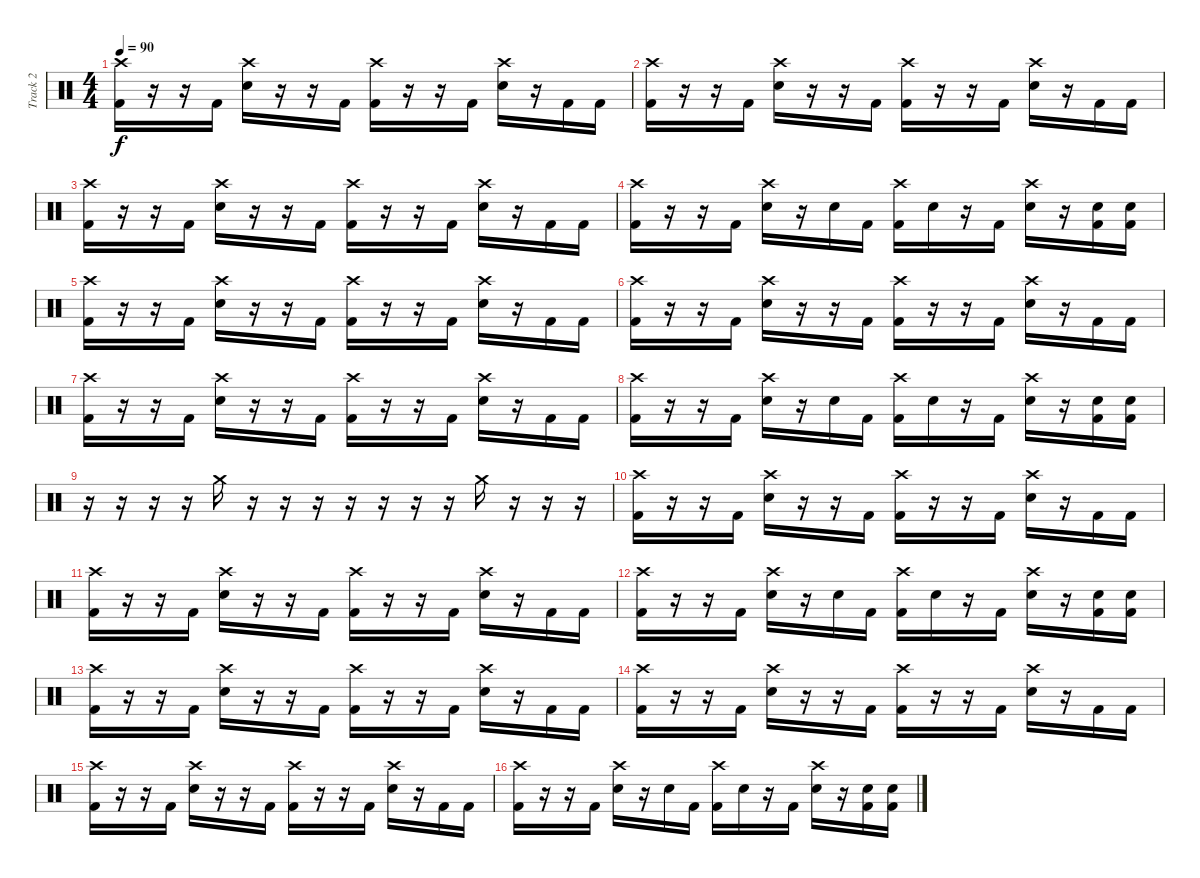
\track ("Track 2" "Track 2") {instrument percussion}
\staff {score}
\articulation defaults
\ts (4 4)
\tempo 90
\clef neutral
\ks c
("Kick (hit) 2" "Crash high (hit)").16{dy f} r.16 r.16 "Kick (hit) 2".16 ("Electric Snare (hit)" "Crash high (hit)").16 r.16 r.16 "Kick (hit) 2".16 ("Kick (hit) 2" "Crash high (hit)").16 r.16 r.16 "Kick (hit) 2".16 ("Electric Snare (hit)" "Crash high (hit)").16 r.16 "Kick (hit) 2".16 "Kick (hit) 2".16 |
("Kick (hit) 2" "Crash high (hit)").16 r.16 r.16 "Kick (hit) 2".16 ("Electric Snare (hit)" "Crash high (hit)").16 r.16 r.16 "Kick (hit) 2".16 ("Kick (hit) 2" "Crash high (hit)").16 r.16 r.16 "Kick (hit) 2".16 ("Electric Snare (hit)" "Crash high (hit)").16 r.16 "Kick (hit) 2".16 "Kick (hit) 2".16 |
("Kick (hit) 2" "Crash high (hit)").16 r.16 r.16 "Kick (hit) 2".16 ("Electric Snare (hit)" "Crash high (hit)").16 r.16 r.16 "Kick (hit) 2".16 ("Kick (hit) 2" "Crash high (hit)").16 r.16 r.16 "Kick (hit) 2".16 ("Electric Snare (hit)" "Crash high (hit)").16 r.16 "Kick (hit) 2".16 "Kick (hit) 2".16 |
("Kick (hit) 2" "Crash high (hit)").16 r.16 r.16 "Kick (hit) 2".16 ("Electric Snare (hit)" "Crash high (hit)").16 r.16 "Electric Snare (hit)".16 "Kick (hit) 2".16 ("Kick (hit) 2" "Crash high (hit)").16 "Electric Snare (hit)".16 r.16 "Kick (hit) 2".16 ("Electric Snare (hit)" "Crash high (hit)").16 r.16 ("Kick (hit) 2" "Electric Snare (hit)").16 ("Kick (hit) 2" "Electric Snare (hit)").16 |
("Kick (hit) 2" "Crash high (hit)").16 r.16 r.16 "Kick (hit) 2".16 ("Electric Snare (hit)" "Crash high (hit)").16 r.16 r.16 "Kick (hit) 2".16 ("Kick (hit) 2" "Crash high (hit)").16 r.16 r.16 "Kick (hit) 2".16 ("Electric Snare (hit)" "Crash high (hit)").16 r.16 "Kick (hit) 2".16 "Kick (hit) 2".16 |
("Kick (hit) 2" "Crash high (hit)").16 r.16 r.16 "Kick (hit) 2".16 ("Electric Snare (hit)" "Crash high (hit)").16 r.16 r.16 "Kick (hit) 2".16 ("Kick (hit) 2" "Crash high (hit)").16 r.16 r.16 "Kick (hit) 2".16 ("Electric Snare (hit)" "Crash high (hit)").16 r.16 "Kick (hit) 2".16 "Kick (hit) 2".16 |
("Kick (hit) 2" "Crash high (hit)").16 r.16 r.16 "Kick (hit) 2".16 ("Electric Snare (hit)" "Crash high (hit)").16 r.16 r.16 "Kick (hit) 2".16 ("Kick (hit) 2" "Crash high (hit)").16 r.16 r.16 "Kick (hit) 2".16 ("Electric Snare (hit)" "Crash high (hit)").16 r.16 "Kick (hit) 2".16 "Kick (hit) 2".16 |
("Kick (hit) 2" "Crash high (hit)").16 r.16 r.16 "Kick (hit) 2".16 ("Electric Snare (hit)" "Crash high (hit)").16 r.16 "Electric Snare (hit)".16 "Kick (hit) 2".16 ("Kick (hit) 2" "Crash high (hit)").16 "Electric Snare (hit)".16 r.16 "Kick (hit) 2".16 ("Electric Snare (hit)" "Crash high (hit)").16 r.16 ("Kick (hit) 2" "Electric Snare (hit)").16 ("Kick (hit) 2" "Electric Snare (hit)").16 |
r.16 r.16 r.16 r.16 "Crash medium (hit)".16 r.16 r.16 r.16 r.16 r.16 r.16 r.16 "Crash medium (hit)".16 r.16 r.16 r.16 |
("Kick (hit) 2" "Crash high (hit)").16 r.16 r.16 "Kick (hit) 2".16 ("Electric Snare (hit)" "Crash high (hit)").16 r.16 r.16 "Kick (hit) 2".16 ("Kick (hit) 2" "Crash high (hit)").16 r.16 r.16 "Kick (hit) 2".16 ("Electric Snare (hit)" "Crash high (hit)").16 r.16 "Kick (hit) 2".16 "Kick (hit) 2".16 |
("Kick (hit) 2" "Crash high (hit)").16 r.16 r.16 "Kick (hit) 2".16 ("Electric Snare (hit)" "Crash high (hit)").16 r.16 r.16 "Kick (hit) 2".16 ("Kick (hit) 2" "Crash high (hit)").16 r.16 r.16 "Kick (hit) 2".16 ("Electric Snare (hit)" "Crash high (hit)").16 r.16 "Kick (hit) 2".16 "Kick (hit) 2".16 |
("Kick (hit) 2" "Crash high (hit)").16 r.16 r.16 "Kick (hit) 2".16 ("Electric Snare (hit)" "Crash high (hit)").16 r.16 "Electric Snare (hit)".16 "Kick (hit) 2".16 ("Kick (hit) 2" "Crash high (hit)").16 "Electric Snare (hit)".16 r.16 "Kick (hit) 2".16 ("Electric Snare (hit)" "Crash high (hit)").16 r.16 ("Kick (hit) 2" "Electric Snare (hit)").16 ("Kick (hit) 2" "Electric Snare (hit)").16 |
("Kick (hit) 2" "Crash high (hit)").16 r.16 r.16 "Kick (hit) 2".16 ("Electric Snare (hit)" "Crash high (hit)").16 r.16 r.16 "Kick (hit) 2".16 ("Kick (hit) 2" "Crash high (hit)").16 r.16 r.16 "Kick (hit) 2".16 ("Electric Snare (hit)" "Crash high (hit)").16 r.16 "Kick (hit) 2".16 "Kick (hit) 2".16 |
("Kick (hit) 2" "Crash high (hit)").16 r.16 r.16 "Kick (hit) 2".16 ("Electric Snare (hit)" "Crash high (hit)").16 r.16 r.16 "Kick (hit) 2".16 ("Kick (hit) 2" "Crash high (hit)").16 r.16 r.16 "Kick (hit) 2".16 ("Electric Snare (hit)" "Crash high (hit)").16 r.16 "Kick (hit) 2".16 "Kick (hit) 2".16 |
("Kick (hit) 2" "Crash high (hit)").16 r.16 r.16 "Kick (hit) 2".16 ("Electric Snare (hit)" "Crash high (hit)").16 r.16 r.16 "Kick (hit) 2".16 ("Kick (hit) 2" "Crash high (hit)").16 r.16 r.16 "Kick (hit) 2".16 ("Electric Snare (hit)" "Crash high (hit)").16 r.16 "Kick (hit) 2".16 "Kick (hit) 2".16 |
("Kick (hit) 2" "Crash high (hit)").16 r.16 r.16 "Kick (hit) 2".16 ("Electric Snare (hit)" "Crash high (hit)").16 r.16 "Electric Snare (hit)".16 "Kick (hit) 2".16 ("Kick (hit) 2" "Crash high (hit)").16 "Electric Snare (hit)".16 r.16 "Kick (hit) 2".16 ("Electric Snare (hit)" "Crash high (hit)").16 r.16 ("Kick (hit) 2" "Electric Snare (hit)").16 ("Kick (hit) 2" "Electric Snare (hit)").16
